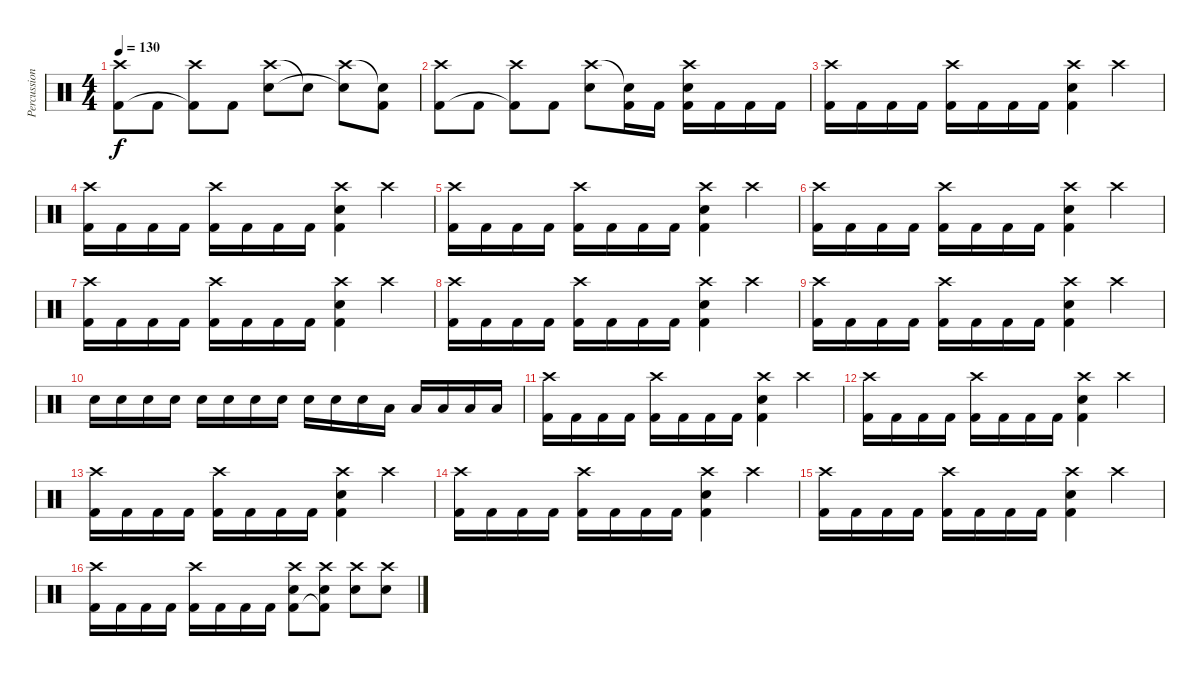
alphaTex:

\track ("Percussion" "Percussion") {instrument percussion}
\staff {score}
\articulation defaults
\ts (4 4)
\tempo 130
\clef neutral
\ks c
("Crash high (hit)" "Kick (hit) 2").8{dy f} "Kick (hit) 2".8 ("Crash high (hit)" "Kick (hit) 2"{t}).8 "Kick (hit) 2".8 ("Crash high (hit)" "Electric Snare (hit)").8 "Snare (hit)"{t}.8 ("Crash high (hit)" "Snare (hit)"{t}).8 ("Snare (hit)"{t} "Kick (hit) 2").8 |
("Crash high (hit)" "Kick (hit) 2").8 "Kick (hit) 2".8 ("Crash high (hit)" "Kick (hit) 2"{t}).8 "Kick (hit) 2".8 ("Crash high (hit)" "Electric Snare (hit)").8 ("Snare (hit)"{t} "Kick (hit) 2").16 "Kick (hit) 2".16 ("Crash high (hit)" "Electric Snare (hit)" "Kick (hit) 2").16 "Kick (hit) 2".16 "Kick (hit) 2".16 "Kick (hit) 2".16 |
("Crash high (hit)" "Kick (hit) 2").16 "Kick (hit) 2".16 "Kick (hit) 2".16 "Kick (hit) 2".16 ("Crash high (hit)" "Kick (hit) 2").16 "Kick (hit) 2".16 "Kick (hit) 2".16 "Kick (hit) 2".16 ("Crash high (hit)" "Electric Snare (hit)" "Kick (hit) 2").4 "Crash high (hit)".4 |
("Crash high (hit)" "Kick (hit) 2").16 "Kick (hit) 2".16 "Kick (hit) 2".16 "Kick (hit) 2".16 ("Crash high (hit)" "Kick (hit) 2").16 "Kick (hit) 2".16 "Kick (hit) 2".16 "Kick (hit) 2".16 ("Crash high (hit)" "Electric Snare (hit)" "Kick (hit) 2").4 "Crash high (hit)".4 |
("Crash high (hit)" "Kick (hit) 2").16 "Kick (hit) 2".16 "Kick (hit) 2".16 "Kick (hit) 2".16 ("Crash high (hit)" "Kick (hit) 2").16 "Kick (hit) 2".16 "Kick (hit) 2".16 "Kick (hit) 2".16 ("Crash high (hit)" "Electric Snare (hit)" "Kick (hit) 2").4 "Crash high (hit)".4 |
("Crash high (hit)" "Kick (hit) 2").16 "Kick (hit) 2".16 "Kick (hit) 2".16 "Kick (hit) 2".16 ("Crash high (hit)" "Kick (hit) 2").16 "Kick (hit) 2".16 "Kick (hit) 2".16 "Kick (hit) 2".16 ("Crash high (hit)" "Electric Snare (hit)" "Kick (hit) 2").4 "Crash high (hit)".4 |
("Crash high (hit)" "Kick (hit) 2").16 "Kick (hit) 2".16 "Kick (hit) 2".16 "Kick (hit) 2".16 ("Crash high (hit)" "Kick (hit) 2").16 "Kick (hit) 2".16 "Kick (hit) 2".16 "Kick (hit) 2".16 ("Crash high (hit)" "Electric Snare (hit)" "Kick (hit) 2").4 "Crash high (hit)".4 |
("Crash high (hit)" "Kick (hit) 2").16 "Kick (hit) 2".16 "Kick (hit) 2".16 "Kick (hit) 2".16 ("Crash high (hit)" "Kick (hit) 2").16 "Kick (hit) 2".16 "Kick (hit) 2".16 "Kick (hit) 2".16 ("Crash high (hit)" "Electric Snare (hit)" "Kick (hit) 2").4 "Crash high (hit)".4 |
("Crash high (hit)" "Kick (hit) 2").16 "Kick (hit) 2".16 "Kick (hit) 2".16 "Kick (hit) 2".16 ("Crash high (hit)" "Kick (hit) 2").16 "Kick (hit) 2".16 "Kick (hit) 2".16 "Kick (hit) 2".16 ("Crash high (hit)" "Electric Snare (hit)" "Kick (hit) 2").4 "Crash high (hit)".4 |
"Electric Snare (hit)".16 "Electric Snare (hit)".16 "Electric Snare (hit)".16 "Electric Snare (hit)".16 "Electric Snare (hit)".16 "Electric Snare (hit)".16 "Electric Snare (hit)".16 "Electric Snare (hit)".16 "Electric Snare (hit)".16 "Electric Snare (hit)".16 "Electric Snare (hit)".16 "Low Tom (hit)".16 "Low Tom (hit)".16 "Low Tom (hit)".16 "Low Tom (hit)".16 "Low Floor Tom (hit)".16 |
("Crash high (hit)" "Kick (hit) 2").16 "Kick (hit) 2".16 "Kick (hit) 2".16 "Kick (hit) 2".16 ("Crash high (hit)" "Kick (hit) 2").16 "Kick (hit) 2".16 "Kick (hit) 2".16 "Kick (hit) 2".16 ("Crash high (hit)" "Electric Snare (hit)" "Kick (hit) 2").4 "Crash high (hit)".4 |
("Crash high (hit)" "Kick (hit) 2").16 "Kick (hit) 2".16 "Kick (hit) 2".16 "Kick (hit) 2".16 ("Crash high (hit)" "Kick (hit) 2").16 "Kick (hit) 2".16 "Kick (hit) 2".16 "Kick (hit) 2".16 ("Crash high (hit)" "Electric Snare (hit)" "Kick (hit) 2").4 "Crash high (hit)".4 |
("Crash high (hit)" "Kick (hit) 2").16 "Kick (hit) 2".16 "Kick (hit) 2".16 "Kick (hit) 2".16 ("Crash high (hit)" "Kick (hit) 2").16 "Kick (hit) 2".16 "Kick (hit) 2".16 "Kick (hit) 2".16 ("Crash high (hit)" "Electric Snare (hit)" "Kick (hit) 2").4 "Crash high (hit)".4 |
("Crash high (hit)" "Kick (hit) 2").16 "Kick (hit) 2".16 "Kick (hit) 2".16 "Kick (hit) 2".16 ("Crash high (hit)" "Kick (hit) 2").16 "Kick (hit) 2".16 "Kick (hit) 2".16 "Kick (hit) 2".16 ("Crash high (hit)" "Electric Snare (hit)" "Kick (hit) 2").4 "Crash high (hit)".4 |
("Crash high (hit)" "Kick (hit) 2").16 "Kick (hit) 2".16 "Kick (hit) 2".16 "Kick (hit) 2".16 ("Crash high (hit)" "Kick (hit) 2").16 "Kick (hit) 2".16 "Kick (hit) 2".16 "Kick (hit) 2".16 ("Crash high (hit)" "Electric Snare (hit)" "Kick (hit) 2").4 "Crash high (hit)".4 |
("Crash high (hit)" "Kick (hit) 2").16 "Kick (hit) 2".16 "Kick (hit) 2".16 "Kick (hit) 2".16 ("Crash high (hit)" "Kick (hit) 2").16 "Kick (hit) 2".16 "Kick (hit) 2".16 "Kick (hit) 2".16 ("Crash high (hit)" "Electric Snare (hit)" "Kick (hit) 2").8 ("Crash high (hit)" "Electric Snare (hit)" "Kick (hit) 2"{t}).8 ("Crash high (hit)" "Electric Snare (hit)").8 ("Crash high (hit)" "Electric Snare (hit)").8
